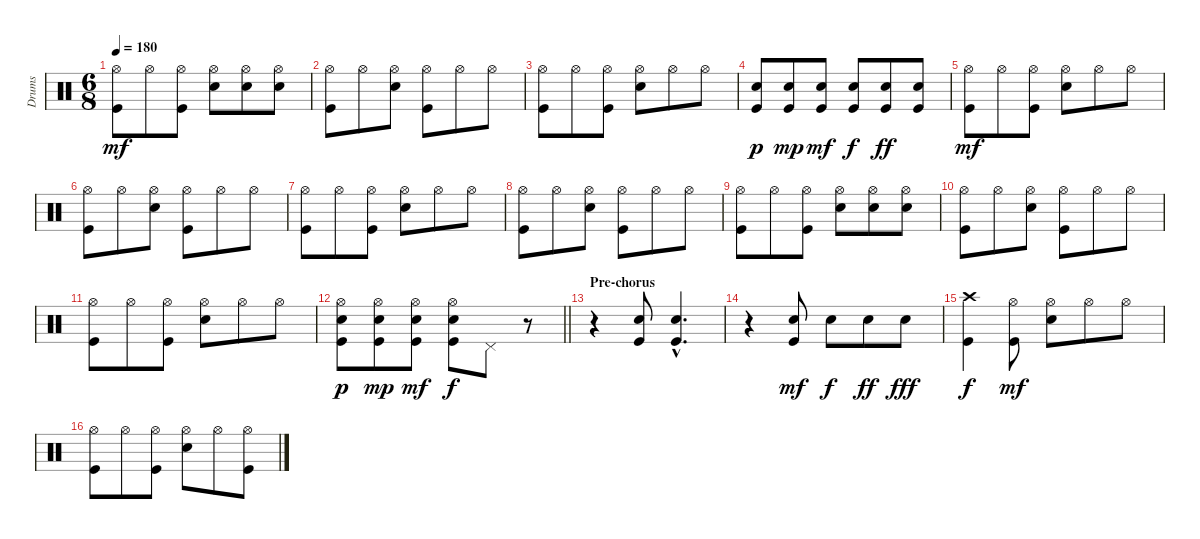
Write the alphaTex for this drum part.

\track ("Drums" "Drums") {instrument percussion}
\staff {score}
\articulation defaults
\ts (6 8)
\tempo 180
\clef neutral
\ks c
("Hi-Hat (open)" "Kick (hit)").8{dy mf} "Hi-Hat (open)".8 ("Hi-Hat (open)" "Kick (hit)").8 ("Hi-Hat (open)" "Electric Snare (hit)").8 ("Hi-Hat (open)" "Electric Snare (hit)").8 ("Hi-Hat (open)" "Electric Snare (hit)").8 |
("Hi-Hat (open)" "Kick (hit)").8 "Hi-Hat (open)".8 ("Hi-Hat (open)" "Electric Snare (hit)").8 ("Hi-Hat (open)" "Kick (hit)").8 "Hi-Hat (open)".8 "Hi-Hat (open)".8 |
("Hi-Hat (open)" "Kick (hit)").8 "Hi-Hat (open)".8 ("Hi-Hat (open)" "Kick (hit)").8 ("Hi-Hat (open)" "Electric Snare (hit)").8 "Hi-Hat (open)".8 "Hi-Hat (open)".8 |
("Electric Snare (hit)" "Kick (hit)").8{dy p} ("Electric Snare (hit)" "Kick (hit)").8{dy mp} ("Electric Snare (hit)" "Kick (hit)").8{dy mf} ("Electric Snare (hit)" "Kick (hit)").8{dy f} ("Electric Snare (hit)" "Kick (hit)").8{dy ff} ("Electric Snare (hit)" "Kick (hit)").8 |
("Hi-Hat (open)" "Kick (hit)").8{dy mf} "Hi-Hat (open)".8 ("Hi-Hat (open)" "Kick (hit)").8 ("Hi-Hat (open)" "Electric Snare (hit)").8 "Hi-Hat (open)".8 "Hi-Hat (open)".8 |
("Hi-Hat (open)" "Kick (hit)").8 "Hi-Hat (open)".8 ("Hi-Hat (open)" "Electric Snare (hit)").8 ("Hi-Hat (open)" "Kick (hit)").8 "Hi-Hat (open)".8 "Hi-Hat (open)".8 |
("Hi-Hat (open)" "Kick (hit)").8 "Hi-Hat (open)".8 ("Hi-Hat (open)" "Kick (hit)").8 ("Hi-Hat (open)" "Electric Snare (hit)").8 "Hi-Hat (open)".8 "Hi-Hat (open)".8 |
("Hi-Hat (open)" "Kick (hit)").8 "Hi-Hat (open)".8 ("Hi-Hat (open)" "Electric Snare (hit)").8 ("Hi-Hat (open)" "Kick (hit)").8 "Hi-Hat (open)".8 "Hi-Hat (open)".8 |
("Hi-Hat (open)" "Kick (hit)").8 "Hi-Hat (open)".8 ("Hi-Hat (open)" "Kick (hit)").8 ("Hi-Hat (open)" "Electric Snare (hit)").8 ("Hi-Hat (open)" "Electric Snare (hit)").8 ("Hi-Hat (open)" "Electric Snare (hit)").8 |
("Hi-Hat (open)" "Kick (hit)").8 "Hi-Hat (open)".8 ("Hi-Hat (open)" "Electric Snare (hit)").8 ("Hi-Hat (open)" "Kick (hit)").8 "Hi-Hat (open)".8 "Hi-Hat (open)".8 |
("Hi-Hat (open)" "Kick (hit)").8 "Hi-Hat (open)".8 ("Hi-Hat (open)" "Kick (hit)").8 ("Hi-Hat (open)" "Electric Snare (hit)").8 "Hi-Hat (open)".8 "Hi-Hat (open)".8 |
\barLineRight lightlight
("Hi-Hat (open)" "Electric Snare (hit)" "Kick (hit)").8{dy p} ("Hi-Hat (open)" "Electric Snare (hit)" "Kick (hit)").8{dy mp} ("Hi-Hat (open)" "Electric Snare (hit)" "Kick (hit)").8{dy mf} ("Hi-Hat (open)" "Electric Snare (hit)" "Kick (hit)").8{dy f} "Pedal Hi-Hat (hit)".8 r.8 |
\section ("" "Pre-chorus")
r.4 ("Electric Snare (hit)" "Kick (hit)").8 ("Electric Snare (hit)"{hac} "Kick (hit)"{hac}).4{d} |
r.4 ("Electric Snare (hit)" "Kick (hit)").8{dy mf} "Electric Snare (hit)".8{dy f} "Electric Snare (hit)".8{dy ff} "Electric Snare (hit)".8{dy fff} |
("Crash high (hit)" "Kick (hit)").4{dy f} ("Hi-Hat (open)" "Kick (hit)").8{dy mf} ("Hi-Hat (open)" "Electric Snare (hit)").8 "Hi-Hat (open)".8 "Hi-Hat (open)".8 |
("Hi-Hat (open)" "Kick (hit)").8 "Hi-Hat (open)".8 ("Hi-Hat (open)" "Kick (hit)").8 ("Hi-Hat (open)" "Electric Snare (hit)").8 "Hi-Hat (open)".8 ("Hi-Hat (open)" "Kick (hit)").8
